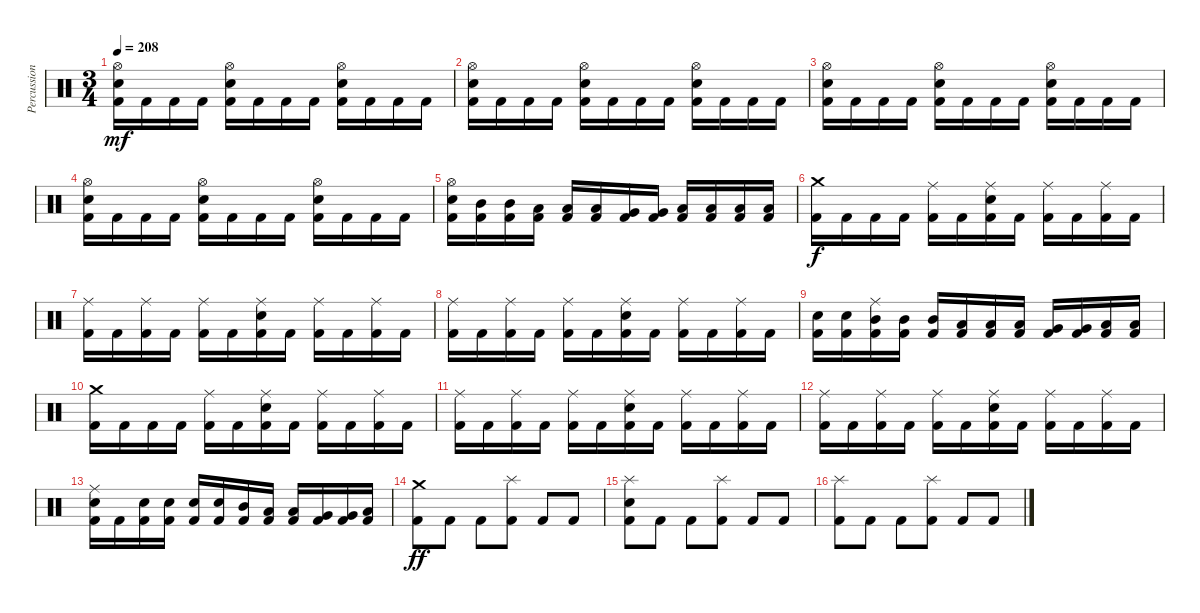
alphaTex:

\track ("Percussion" "Percussion") {instrument percussion}
\staff {score}
\articulation defaults
\ts (3 4)
\tempo 208
\clef neutral
\ks c
("Hi-Hat (open)" "Electric Snare (hit)" "Kick (hit) 2").16{dy mf} "Kick (hit) 2".16 "Kick (hit) 2".16 "Kick (hit) 2".16 ("Hi-Hat (open)" "Electric Snare (hit)" "Kick (hit) 2").16 "Kick (hit) 2".16 "Kick (hit) 2".16 "Kick (hit) 2".16 ("Hi-Hat (open)" "Electric Snare (hit)" "Kick (hit) 2").16 "Kick (hit) 2".16 "Kick (hit) 2".16 "Kick (hit) 2".16 |
("Hi-Hat (open)" "Electric Snare (hit)" "Kick (hit) 2").16 "Kick (hit) 2".16 "Kick (hit) 2".16 "Kick (hit) 2".16 ("Hi-Hat (open)" "Electric Snare (hit)" "Kick (hit) 2").16 "Kick (hit) 2".16 "Kick (hit) 2".16 "Kick (hit) 2".16 ("Hi-Hat (open)" "Electric Snare (hit)" "Kick (hit) 2").16 "Kick (hit) 2".16 "Kick (hit) 2".16 "Kick (hit) 2".16 |
("Hi-Hat (open)" "Electric Snare (hit)" "Kick (hit) 2").16 "Kick (hit) 2".16 "Kick (hit) 2".16 "Kick (hit) 2".16 ("Hi-Hat (open)" "Electric Snare (hit)" "Kick (hit) 2").16 "Kick (hit) 2".16 "Kick (hit) 2".16 "Kick (hit) 2".16 ("Hi-Hat (open)" "Electric Snare (hit)" "Kick (hit) 2").16 "Kick (hit) 2".16 "Kick (hit) 2".16 "Kick (hit) 2".16 |
("Hi-Hat (open)" "Electric Snare (hit)" "Kick (hit) 2").16 "Kick (hit) 2".16 "Kick (hit) 2".16 "Kick (hit) 2".16 ("Hi-Hat (open)" "Electric Snare (hit)" "Kick (hit) 2").16 "Kick (hit) 2".16 "Kick (hit) 2".16 "Kick (hit) 2".16 ("Hi-Hat (open)" "Electric Snare (hit)" "Kick (hit) 2").16 "Kick (hit) 2".16 "Kick (hit) 2".16 "Kick (hit) 2".16 |
("Hi-Hat (open)" "Electric Snare (hit)" "Kick (hit) 2").16 ("Mid Tom (hit)" "Kick (hit) 2").16 ("Mid Tom (hit)" "Kick (hit) 2").16 ("Low Tom (hit)" "Kick (hit) 2").16 ("Low Tom (hit)" "Kick (hit) 2").16 ("Low Tom (hit)" "Kick (hit) 2").16 ("Very Low Tom (hit)" "Kick (hit) 2").16 ("Very Low Tom (hit)" "Kick (hit) 2").16 ("Low Floor Tom (hit)" "Kick (hit) 2").16 ("Low Floor Tom (hit)" "Kick (hit) 2").16 ("Low Floor Tom (hit)" "Kick (hit) 2").16 ("Low Floor Tom (hit)" "Kick (hit) 2").16 |
("Crash medium (hit)" "Kick (hit) 2").16{dy f} "Kick (hit) 2".16 "Kick (hit) 2".16 "Kick (hit) 2".16 ("Ride (middle)" "Kick (hit) 2").16 "Kick (hit) 2".16 ("Ride (middle)" "Electric Snare (hit)" "Kick (hit) 2").16 "Kick (hit) 2".16 ("Ride (middle)" "Kick (hit) 2").16 "Kick (hit) 2".16 ("Ride (middle)" "Kick (hit) 2").16 "Kick (hit) 2".16 |
("Ride (middle)" "Kick (hit) 2").16 "Kick (hit) 2".16 ("Ride (middle)" "Kick (hit) 2").16 "Kick (hit) 2".16 ("Ride (middle)" "Kick (hit) 2").16 "Kick (hit) 2".16 ("Ride (middle)" "Electric Snare (hit)" "Kick (hit) 2").16 "Kick (hit) 2".16 ("Ride (middle)" "Kick (hit) 2").16 "Kick (hit) 2".16 ("Ride (middle)" "Kick (hit) 2").16 "Kick (hit) 2".16 |
("Ride (middle)" "Kick (hit) 2").16 "Kick (hit) 2".16 ("Ride (middle)" "Kick (hit) 2").16 "Kick (hit) 2".16 ("Ride (middle)" "Kick (hit) 2").16 "Kick (hit) 2".16 ("Ride (middle)" "Electric Snare (hit)" "Kick (hit) 2").16 "Kick (hit) 2".16 ("Ride (middle)" "Kick (hit) 2").16 "Kick (hit) 2".16 ("Ride (middle)" "Kick (hit) 2").16 "Kick (hit) 2".16 |
("Electric Snare (hit)" "Kick (hit) 2").16 ("Electric Snare (hit)" "Kick (hit) 2").16 ("Ride (middle)" "Mid Tom (hit)" "Kick (hit) 2").16 ("Mid Tom (hit)" "Kick (hit) 2").16 ("Mid Tom (hit)" "Kick (hit) 2").16 ("Low Tom (hit)" "Kick (hit) 2").16 ("Low Tom (hit)" "Kick (hit) 2").16 ("Low Tom (hit)" "Kick (hit) 2").16 ("Very Low Tom (hit)" "Kick (hit) 2").16 ("Very Low Tom (hit)" "Kick (hit) 2").16 ("Low Floor Tom (hit)" "Kick (hit) 2").16 ("Low Floor Tom (hit)" "Kick (hit) 2").16 |
("Crash medium (hit)" "Kick (hit) 2").16 "Kick (hit) 2".16 "Kick (hit) 2".16 "Kick (hit) 2".16 ("Ride (middle)" "Kick (hit) 2").16 "Kick (hit) 2".16 ("Ride (middle)" "Electric Snare (hit)" "Kick (hit) 2").16 "Kick (hit) 2".16 ("Ride (middle)" "Kick (hit) 2").16 "Kick (hit) 2".16 ("Ride (middle)" "Kick (hit) 2").16 "Kick (hit) 2".16 |
("Ride (middle)" "Kick (hit) 2").16 "Kick (hit) 2".16 ("Ride (middle)" "Kick (hit) 2").16 "Kick (hit) 2".16 ("Ride (middle)" "Kick (hit) 2").16 "Kick (hit) 2".16 ("Ride (middle)" "Electric Snare (hit)" "Kick (hit) 2").16 "Kick (hit) 2".16 ("Ride (middle)" "Kick (hit) 2").16 "Kick (hit) 2".16 ("Ride (middle)" "Kick (hit) 2").16 "Kick (hit) 2".16 |
("Ride (middle)" "Kick (hit) 2").16 "Kick (hit) 2".16 ("Ride (middle)" "Kick (hit) 2").16 "Kick (hit) 2".16 ("Ride (middle)" "Kick (hit) 2").16 "Kick (hit) 2".16 ("Ride (middle)" "Electric Snare (hit)" "Kick (hit) 2").16 "Kick (hit) 2".16 ("Ride (middle)" "Kick (hit) 2").16 "Kick (hit) 2".16 ("Ride (middle)" "Kick (hit) 2").16 "Kick (hit) 2".16 |
("Ride (middle)" "Electric Snare (hit)" "Kick (hit) 2").16 "Kick (hit) 2".16 ("Electric Snare (hit)" "Kick (hit) 2").16 ("Electric Snare (hit)" "Kick (hit) 2").16 ("Electric Snare (hit)" "Kick (hit) 2").16 ("Electric Snare (hit)" "Kick (hit) 2").16 ("Mid Tom (hit)" "Kick (hit) 2").16 ("Low Tom (hit)" "Kick (hit) 2").16 ("Low Tom (hit)" "Kick (hit) 2").16 ("Very Low Tom (hit)" "Kick (hit) 2").16 ("Very Low Tom (hit)" "Kick (hit) 2").16 ("Low Floor Tom (hit)" "Kick (hit) 2").16 |
("Crash medium (hit)" "Kick (hit) 2").8{dy ff} "Kick (hit) 2".8 "Kick (hit) 2".8 ("Splash (hit)" "Kick (hit) 2").8 "Kick (hit) 2".8 "Kick (hit) 2".8 |
("Splash (hit)" "Electric Snare (hit)" "Kick (hit) 2").8 "Kick (hit) 2".8 "Kick (hit) 2".8 ("Splash (hit)" "Kick (hit) 2").8 "Kick (hit) 2".8 "Kick (hit) 2".8 |
("Splash (hit)" "Kick (hit) 2").8 "Kick (hit) 2".8 "Kick (hit) 2".8 ("Splash (hit)" "Kick (hit) 2").8 "Kick (hit) 2".8 "Kick (hit) 2".8
